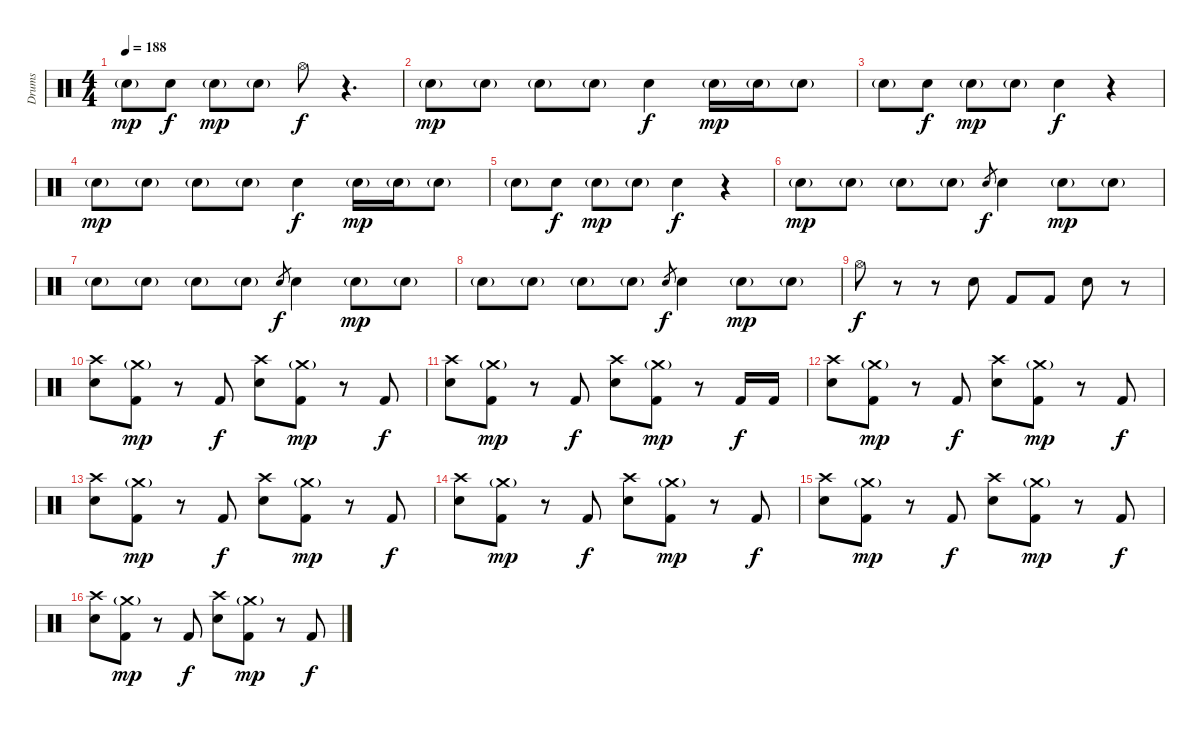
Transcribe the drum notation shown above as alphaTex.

\track ("Drums" "Drums") {instrument percussion}
\staff {score}
\articulation defaults
\ts (4 4)
\tempo 188
\clef neutral
\ks c "Electric Snare (hit)"{g}.8{dy mp} "Electric Snare (hit)".8{dy f} "Electric Snare (hit)"{g}.8{dy mp} "Electric Snare (hit)"{g}.8 "Hi-Hat (open)".8{dy f}
r.4{d} |
"Electric Snare (hit)"{g}.8{dy mp} "Electric Snare (hit)"{g}.8 "Electric Snare (hit)"{g}.8 "Electric Snare (hit)"{g}.8 "Electric Snare (hit)".4{dy f} "Electric Snare (hit)"{g}.16{dy mp} "Electric Snare (hit)"{g}.16 "Electric Snare (hit)"{g}.8 |
"Electric Snare (hit)"{g}.8 "Electric Snare (hit)".8{dy f} "Electric Snare (hit)"{g}.8{dy mp} "Electric Snare (hit)"{g}.8 "Electric Snare (hit)".4{dy f} r.4 |
"Electric Snare (hit)"{g}.8{dy mp} "Electric Snare (hit)"{g}.8 "Electric Snare (hit)"{g}.8 "Electric Snare (hit)"{g}.8 "Electric Snare (hit)".4{dy f} "Electric Snare (hit)"{g}.16{dy mp} "Electric Snare (hit)"{g}.16 "Electric Snare (hit)"{g}.8 |
"Electric Snare (hit)"{g}.8 "Electric Snare (hit)".8{dy f} "Electric Snare (hit)"{g}.8{dy mp} "Electric Snare (hit)"{g}.8 "Electric Snare (hit)".4{dy f} r.4 |
"Electric Snare (hit)"{g}.8{dy mp} "Electric Snare (hit)"{g}.8 "Electric Snare (hit)"{g}.8 "Electric Snare (hit)"{g}.8 "Electric Snare (hit)".8{gr dy f} "Electric Snare (hit)".4 "Electric Snare (hit)"{g}.8{dy mp} "Electric Snare (hit)"{g}.8 |
"Electric Snare (hit)"{g}.8 "Electric Snare (hit)"{g}.8 "Electric Snare (hit)"{g}.8 "Electric Snare (hit)"{g}.8 "Electric Snare (hit)".8{gr dy f} "Electric Snare (hit)".4 "Electric Snare (hit)"{g}.8{dy mp} "Electric Snare (hit)"{g}.8 |
"Electric Snare (hit)"{g}.8 "Electric Snare (hit)"{g}.8 "Electric Snare (hit)"{g}.8 "Electric Snare (hit)"{g}.8 "Electric Snare (hit)".8{gr dy f} "Electric Snare (hit)".4 "Electric Snare (hit)"{g}.8{dy mp} "Electric Snare (hit)"{g}.8 |
"Hi-Hat (open)".8{dy f} r.8 r.8 "Electric Snare (hit)".8 "Kick (hit) 2".8 "Kick (hit) 2".8 "Electric Snare (hit)".8 r.8 |
("Crash high (hit)" "Electric Snare (hit)").8 ("Crash medium (hit)"{g} "Kick (hit) 2").8{dy mp} r.8 "Kick (hit) 2".8{dy f} ("Crash high (hit)" "Electric Snare (hit)").8 ("Crash medium (hit)"{g} "Kick (hit) 2").8{dy mp} r.8 "Kick (hit) 2".8{dy f} |
("Crash high (hit)" "Electric Snare (hit)").8 ("Crash medium (hit)"{g} "Kick (hit) 2").8{dy mp} r.8 "Kick (hit) 2".8{dy f} ("Crash high (hit)" "Electric Snare (hit)").8 ("Crash medium (hit)"{g} "Kick (hit) 2").8{dy mp} r.8 "Kick (hit) 2".16{dy f} "Kick (hit) 2".16 |
("Crash high (hit)" "Electric Snare (hit)").8 ("Crash medium (hit)"{g} "Kick (hit) 2").8{dy mp} r.8 "Kick (hit) 2".8{dy f} ("Crash high (hit)" "Electric Snare (hit)").8 ("Crash medium (hit)"{g} "Kick (hit) 2").8{dy mp} r.8 "Kick (hit) 2".8{dy f} |
("Crash high (hit)" "Electric Snare (hit)").8 ("Crash medium (hit)"{g} "Kick (hit) 2").8{dy mp} r.8 "Kick (hit) 2".8{dy f} ("Crash high (hit)" "Electric Snare (hit)").8 ("Crash medium (hit)"{g} "Kick (hit) 2").8{dy mp} r.8 "Kick (hit) 2".8{dy f} |
("Crash high (hit)" "Electric Snare (hit)").8 ("Crash medium (hit)"{g} "Kick (hit) 2").8{dy mp} r.8 "Kick (hit) 2".8{dy f} ("Crash high (hit)" "Electric Snare (hit)").8 ("Crash medium (hit)"{g} "Kick (hit) 2").8{dy mp} r.8 "Kick (hit) 2".8{dy f} |
("Crash high (hit)" "Electric Snare (hit)").8 ("Crash medium (hit)"{g} "Kick (hit) 2").8{dy mp} r.8 "Kick (hit) 2".8{dy f} ("Crash high (hit)" "Electric Snare (hit)").8 ("Crash medium (hit)"{g} "Kick (hit) 2").8{dy mp} r.8 "Kick (hit) 2".8{dy f} |
("Crash high (hit)" "Electric Snare (hit)").8 ("Crash medium (hit)"{g} "Kick (hit) 2").8{dy mp} r.8 "Kick (hit) 2".8{dy f} ("Crash high (hit)" "Electric Snare (hit)").8 ("Crash medium (hit)"{g} "Kick (hit) 2").8{dy mp} r.8 "Kick (hit) 2".8{dy f}
